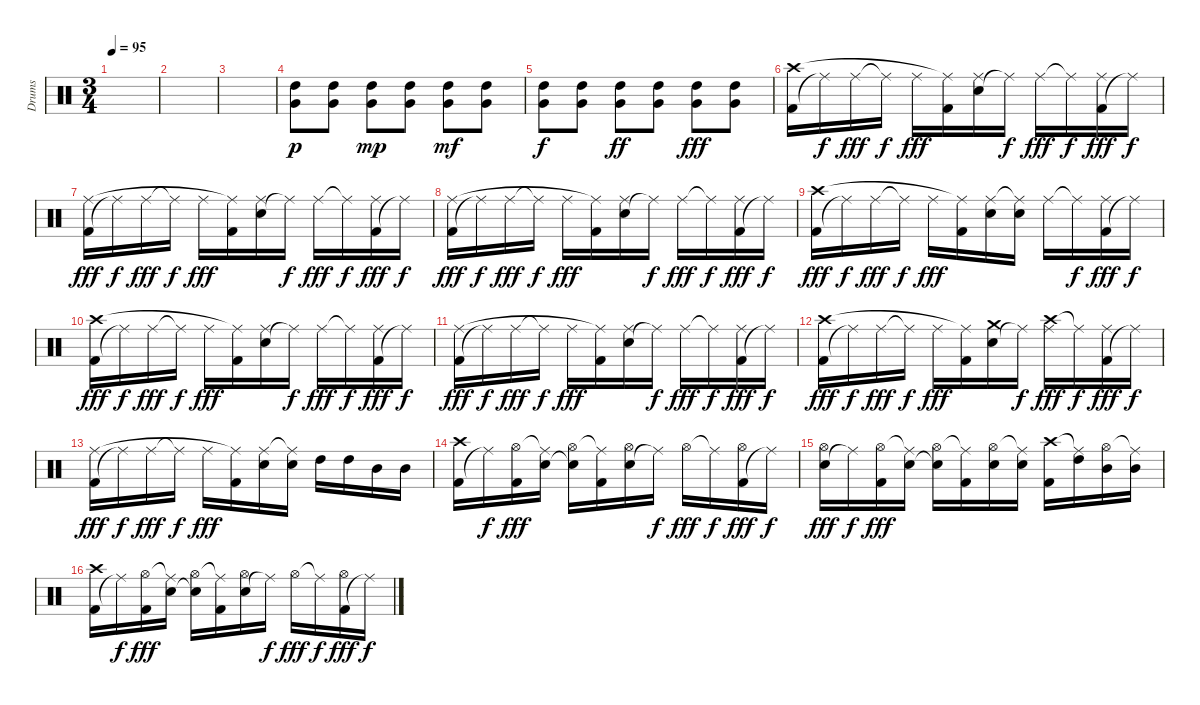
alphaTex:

\track ("Drums" "Drums") {instrument percussion}
\staff {score}
\articulation defaults
\ts (3 4)
\tempo 95
\clef neutral
\ks c
|
|
|
("High Tom (hit)" "Very Low Tom (hit)").8{dy p} ("High Tom (hit)" "Very Low Tom (hit)").8 ("High Tom (hit)" "Very Low Tom (hit)").8{dy mp} ("High Tom (hit)" "Very Low Tom (hit)").8 ("High Tom (hit)" "Very Low Tom (hit)").8{dy mf} ("High Tom (hit)" "Very Low Tom (hit)").8 |
("High Tom (hit)" "Very Low Tom (hit)").8{dy f} ("High Tom (hit)" "Very Low Tom (hit)").8 ("High Tom (hit)" "Very Low Tom (hit)").8{dy ff} ("High Tom (hit)" "Very Low Tom (hit)").8 ("High Tom (hit)" "Very Low Tom (hit)").8{dy fff} ("High Tom (hit)" "Very Low Tom (hit)").8 |
("Kick (hit) 2" "Crash high (hit)").16 "Ride (middle)"{t}.16{dy f} "Ride (middle)".16{dy fff} "Ride (middle)"{t}.16{dy f} "Ride (middle)".16{dy fff} ("Kick (hit) 2" "Ride (middle)"{t}).16 ("Snare (hit) 2" "Ride (middle)").16 "Ride (middle)"{t}.16{dy f} "Ride (middle)".16{dy fff} "Ride (middle)"{t}.16{dy f} ("Kick (hit) 2" "Ride (middle)").16{dy fff} "Ride (middle)"{t}.16{dy f} |
("Kick (hit) 2" "Ride (middle)").16{dy fff} "Ride (middle)"{t}.16{dy f} "Ride (middle)".16{dy fff} "Ride (middle)"{t}.16{dy f} "Ride (middle)".16{dy fff} ("Kick (hit) 2" "Ride (middle)"{t}).16 ("Snare (hit) 2" "Ride (middle)").16 "Ride (middle)"{t}.16{dy f} "Ride (middle)".16{dy fff} "Ride (middle)"{t}.16{dy f} ("Kick (hit) 2" "Ride (middle)").16{dy fff} "Ride (middle)"{t}.16{dy f} |
("Kick (hit) 2" "Ride (middle)").16{dy fff} "Ride (middle)"{t}.16{dy f} "Ride (middle)".16{dy fff} "Ride (middle)"{t}.16{dy f} "Ride (middle)".16{dy fff} ("Kick (hit) 2" "Ride (middle)"{t}).16 ("Snare (hit) 2" "Ride (middle)").16 "Ride (middle)"{t}.16{dy f} "Ride (middle)".16{dy fff} "Ride (middle)"{t}.16{dy f} ("Kick (hit) 2" "Ride (middle)").16{dy fff} "Ride (middle)"{t}.16{dy f} |
("Kick (hit) 2" "Crash high (hit)").16{dy fff} "Ride (middle)"{t}.16{dy f} "Ride (middle)".16{dy fff} "Ride (middle)"{t}.16{dy f} "Ride (middle)".16{dy fff} ("Kick (hit) 2" "Ride (middle)"{t}).16 ("Snare (hit) 2" "Ride (middle)").16 ("Snare (hit) 2" "Ride (middle)"{t}).16 "Ride (middle)".16 "Ride (middle)"{t}.16{dy f} ("Kick (hit) 2" "Ride (middle)").16{dy fff} "Ride (middle)"{t}.16{dy f} |
("Kick (hit) 2" "Crash high (hit)").16{dy fff} "Ride (middle)"{t}.16{dy f} "Ride (middle)".16{dy fff} "Ride (middle)"{t}.16{dy f} "Ride (middle)".16{dy fff} ("Kick (hit) 2" "Ride (middle)"{t}).16 ("Snare (hit) 2" "Ride (middle)").16 "Ride (middle)"{t}.16{dy f} "Ride (middle)".16{dy fff} "Ride (middle)"{t}.16{dy f} ("Kick (hit) 2" "Ride (middle)").16{dy fff} "Ride (middle)"{t}.16{dy f} |
("Kick (hit) 2" "Ride (middle)").16{dy fff} "Ride (middle)"{t}.16{dy f} "Ride (middle)".16{dy fff} "Ride (middle)"{t}.16{dy f} "Ride (middle)".16{dy fff} ("Kick (hit) 2" "Ride (middle)"{t}).16 ("Snare (hit) 2" "Ride (middle)").16 "Ride (middle)"{t}.16{dy f} "Ride (middle)".16{dy fff} "Ride (middle)"{t}.16{dy f} ("Kick (hit) 2" "Ride (middle)").16{dy fff} "Ride (middle)"{t}.16{dy f} |
("Kick (hit) 2" "Crash high (hit)").16{dy fff} "Ride (middle)"{t}.16{dy f} "Ride (middle)".16{dy fff} "Ride (middle)"{t}.16{dy f} "Ride (middle)".16{dy fff} ("Kick (hit) 2" "Ride (middle)"{t}).16 ("Snare (hit) 2" "Crash medium (hit)").16 "Ride (middle)"{t}.16{dy f} ("Crash high (hit)" "Ride (middle)").16{dy fff} "Ride (middle)"{t}.16{dy f} ("Kick (hit) 2" "Ride (middle)").16{dy fff} "Ride (middle)"{t}.16{dy f} |
("Kick (hit) 2" "Ride (middle)").16{dy fff} "Ride (middle)"{t}.16{dy f} "Ride (middle)".16{dy fff} "Ride (middle)"{t}.16{dy f} "Ride (middle)".16{dy fff} ("Kick (hit) 2" "Ride (middle)"{t}).16 ("Snare (hit) 2" "Ride (middle)").16 ("Snare (hit) 2" "Ride (middle)"{t}).16 "High Tom (hit)".16 "High Tom (hit)".16 "Mid Tom (hit)".16 "Mid Tom (hit)".16 |
("Kick (hit) 2" "Crash high (hit)").16 "Ride (middle)"{t}.16{dy f} ("Kick (hit) 2" "Hi-Hat (open)").16{dy fff} ("Snare (hit) 2" "Ride (middle)"{t}).16 ("Snare (hit) 2"{t} "Hi-Hat (open)").16 ("Kick (hit) 2" "Ride (middle)"{t}).16 ("Snare (hit) 2" "Hi-Hat (open)").16 "Ride (middle)"{t}.16{dy f} "Hi-Hat (open)".16{dy fff} "Ride (middle)"{t}.16{dy f} ("Kick (hit) 2" "Hi-Hat (open)").16{dy fff} "Ride (middle)"{t}.16{dy f} |
("Snare (hit) 2" "Hi-Hat (open)").16{dy fff} "Ride (middle)"{t}.16{dy f} ("Kick (hit) 2" "Hi-Hat (open)").16{dy fff} ("Snare (hit) 2" "Ride (middle)"{t}).16 ("Snare (hit) 2"{t} "Hi-Hat (open)").16 ("Kick (hit) 2" "Ride (middle)"{t}).16 ("Snare (hit) 2" "Hi-Hat (open)").16 ("Snare (hit) 2" "Ride (middle)"{t}).16 ("Kick (hit) 2" "Crash high (hit)").16 ("High Tom (hit)" "Ride (middle)"{t}).16 ("Mid Tom (hit)" "Hi-Hat (open)").16 ("Mid Tom (hit)" "Ride (middle)"{t}).16 |
("Kick (hit) 2" "Crash high (hit)").16 "Ride (middle)"{t}.16{dy f} ("Kick (hit) 2" "Hi-Hat (open)").16{dy fff} ("Snare (hit) 2" "Ride (middle)"{t}).16 ("Snare (hit) 2"{t} "Hi-Hat (open)").16 ("Kick (hit) 2" "Ride (middle)"{t}).16 ("Snare (hit) 2" "Hi-Hat (open)").16 "Ride (middle)"{t}.16{dy f} "Hi-Hat (open)".16{dy fff} "Ride (middle)"{t}.16{dy f} ("Kick (hit) 2" "Hi-Hat (open)").16{dy fff} "Ride (middle)"{t}.16{dy f}
